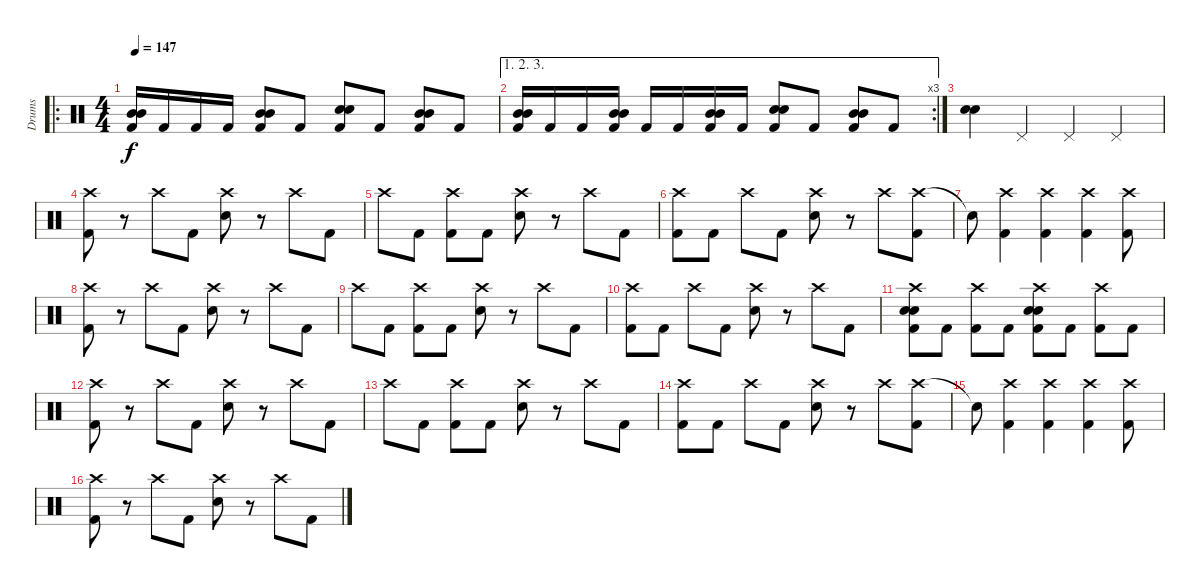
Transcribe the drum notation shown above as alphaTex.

\track ("Drums" "Drums") {instrument percussion}
\staff {score}
\articulation defaults
\ro
\ts (4 4)
\tempo 147
\clef neutral
\ks c
("Mid Tom (hit)" "Mid Tom (hit)" "Kick (hit) 2").16{dy f} "Kick (hit) 2".16 "Kick (hit) 2".16 "Kick (hit) 2".16 ("Mid Tom (hit)" "Mid Tom (hit)" "Kick (hit) 2").8 "Kick (hit) 2".8 ("Snare (hit) 2" "Snare (hit) 2" "Kick (hit) 2").8 "Kick (hit) 2".8 ("Mid Tom (hit)" "Mid Tom (hit)" "Kick (hit) 2").8 "Kick (hit) 2".8 |
\ae (1 2 3)
\rc 3
("Mid Tom (hit)" "Mid Tom (hit)" "Kick (hit) 2").16 "Kick (hit) 2".16 "Kick (hit) 2".16 ("Mid Tom (hit)" "Mid Tom (hit)" "Kick (hit) 2").16 "Kick (hit) 2".16 "Kick (hit) 2".16 ("Mid Tom (hit)" "Mid Tom (hit)" "Kick (hit) 2").16 "Kick (hit) 2".16 ("Snare (hit) 2" "Snare (hit) 2" "Kick (hit) 2").8 "Kick (hit) 2".8 ("Mid Tom (hit)" "Mid Tom (hit)" "Kick (hit) 2").8 "Kick (hit) 2".8 |
("Snare (hit) 2" "Electric Snare (hit)").4 "Pedal Hi-Hat (hit)".4 "Pedal Hi-Hat (hit)".4 "Pedal Hi-Hat (hit)".4 |
("Crash high (hit)" "Kick (hit) 2").8 r.8 "Crash high (hit)".8 "Kick (hit) 2".8 ("Crash high (hit)" "Electric Snare (hit)").8 r.8 "Crash high (hit)".8 "Kick (hit) 2".8 |
"Crash high (hit)".8 "Kick (hit) 2".8 ("Crash high (hit)" "Kick (hit) 2").8 "Kick (hit) 2".8 ("Crash high (hit)" "Electric Snare (hit)").8 r.8 "Crash high (hit)".8 "Kick (hit) 2".8 |
("Crash high (hit)" "Kick (hit) 2").8 "Kick (hit) 2".8 "Crash high (hit)".8 "Kick (hit) 2".8 ("Crash high (hit)" "Electric Snare (hit)").8 r.8 "Crash high (hit)".8 ("Crash high (hit)" "Kick (hit) 2").8 |
"Snare (hit)"{t}.8 ("Crash high (hit)" "Kick (hit) 2").4 ("Crash high (hit)" "Kick (hit) 2").4 ("Crash high (hit)" "Kick (hit) 2").4 ("Crash high (hit)" "Kick (hit) 2").8 |
("Crash high (hit)" "Kick (hit) 2").8 r.8 "Crash high (hit)".8 "Kick (hit) 2".8 ("Crash high (hit)" "Electric Snare (hit)").8 r.8 "Crash high (hit)".8 "Kick (hit) 2".8 |
"Crash high (hit)".8 "Kick (hit) 2".8 ("Crash high (hit)" "Kick (hit) 2").8 "Kick (hit) 2".8 ("Crash high (hit)" "Electric Snare (hit)").8 r.8 "Crash high (hit)".8 "Kick (hit) 2".8 |
("Crash high (hit)" "Kick (hit) 2").8 "Kick (hit) 2".8 "Crash high (hit)".8 "Kick (hit) 2".8 ("Crash high (hit)" "Electric Snare (hit)").8 r.8 "Crash high (hit)".8 "Kick (hit) 2".8 |
("Crash high (hit)" "Electric Snare (hit)" "Snare (hit) 2" "Kick (hit) 2").8 "Kick (hit) 2".8 ("Crash high (hit)" "Kick (hit) 2").8 "Kick (hit) 2".8 ("Crash high (hit)" "Electric Snare (hit)" "Snare (hit) 2" "Kick (hit) 2").8 "Kick (hit) 2".8 ("Crash high (hit)" "Kick (hit) 2").8 "Kick (hit) 2".8 |
("Crash high (hit)" "Kick (hit) 2").8 r.8 "Crash high (hit)".8 "Kick (hit) 2".8 ("Crash high (hit)" "Electric Snare (hit)").8 r.8 "Crash high (hit)".8 "Kick (hit) 2".8 |
"Crash high (hit)".8 "Kick (hit) 2".8 ("Crash high (hit)" "Kick (hit) 2").8 "Kick (hit) 2".8 ("Crash high (hit)" "Electric Snare (hit)").8 r.8 "Crash high (hit)".8 "Kick (hit) 2".8 |
("Crash high (hit)" "Kick (hit) 2").8 "Kick (hit) 2".8 "Crash high (hit)".8 "Kick (hit) 2".8 ("Crash high (hit)" "Electric Snare (hit)").8 r.8 "Crash high (hit)".8 ("Crash high (hit)" "Kick (hit) 2").8 |
"Snare (hit)"{t}.8 ("Crash high (hit)" "Kick (hit) 2").4 ("Crash high (hit)" "Kick (hit) 2").4 ("Crash high (hit)" "Kick (hit) 2").4 ("Crash high (hit)" "Kick (hit) 2").8 |
("Crash high (hit)" "Kick (hit) 2").8 r.8 "Crash high (hit)".8 "Kick (hit) 2".8 ("Crash high (hit)" "Electric Snare (hit)").8 r.8 "Crash high (hit)".8 "Kick (hit) 2".8
